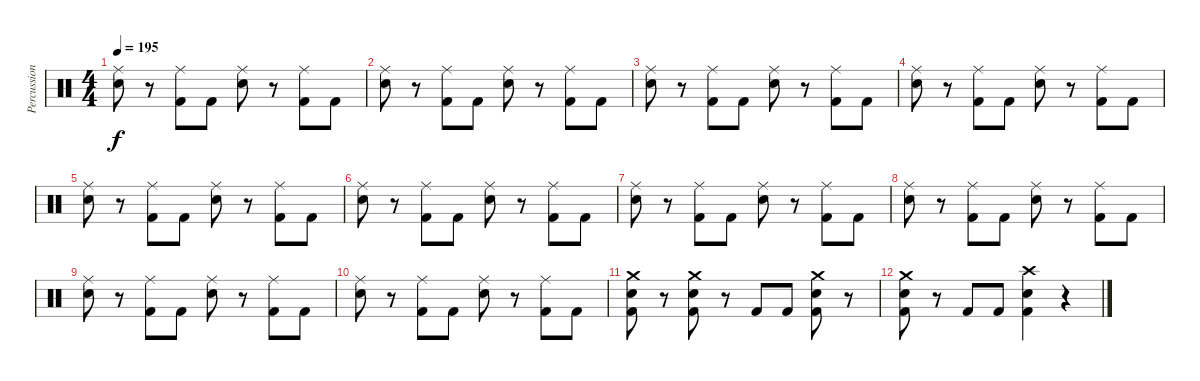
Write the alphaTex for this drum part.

\track ("Percussion" "Percussion") {instrument percussion}
\staff {score}
\articulation defaults
\ts (4 4)
\tempo 195
\clef neutral
\ks c
("Ride (middle)" "Electric Snare (hit)").8{dy f} r.8 ("Ride (middle)" "Kick (hit) 2").8 "Kick (hit) 2".8 ("Ride (middle)" "Electric Snare (hit)").8 r.8 ("Ride (middle)" "Kick (hit) 2").8 "Kick (hit) 2".8 |
("Ride (middle)" "Electric Snare (hit)").8 r.8 ("Ride (middle)" "Kick (hit) 2").8 "Kick (hit) 2".8 ("Ride (middle)" "Electric Snare (hit)").8 r.8 ("Ride (middle)" "Kick (hit) 2").8 "Kick (hit) 2".8 |
("Ride (middle)" "Electric Snare (hit)").8 r.8 ("Ride (middle)" "Kick (hit) 2").8 "Kick (hit) 2".8 ("Ride (middle)" "Electric Snare (hit)").8 r.8 ("Ride (middle)" "Kick (hit) 2").8 "Kick (hit) 2".8 |
("Ride (middle)" "Electric Snare (hit)").8 r.8 ("Ride (middle)" "Kick (hit) 2").8 "Kick (hit) 2".8 ("Ride (middle)" "Electric Snare (hit)").8 r.8 ("Ride (middle)" "Kick (hit) 2").8 "Kick (hit) 2".8 |
("Ride (middle)" "Electric Snare (hit)").8 r.8 ("Ride (middle)" "Kick (hit) 2").8 "Kick (hit) 2".8 ("Ride (middle)" "Electric Snare (hit)").8 r.8 ("Ride (middle)" "Kick (hit) 2").8 "Kick (hit) 2".8 |
("Ride (middle)" "Electric Snare (hit)").8 r.8 ("Ride (middle)" "Kick (hit) 2").8 "Kick (hit) 2".8 ("Ride (middle)" "Electric Snare (hit)").8 r.8 ("Ride (middle)" "Kick (hit) 2").8 "Kick (hit) 2".8 |
("Ride (middle)" "Electric Snare (hit)").8 r.8 ("Ride (middle)" "Kick (hit) 2").8 "Kick (hit) 2".8 ("Ride (middle)" "Electric Snare (hit)").8 r.8 ("Ride (middle)" "Kick (hit) 2").8 "Kick (hit) 2".8 |
("Ride (middle)" "Electric Snare (hit)").8 r.8 ("Ride (middle)" "Kick (hit) 2").8 "Kick (hit) 2".8 ("Ride (middle)" "Electric Snare (hit)").8 r.8 ("Ride (middle)" "Kick (hit) 2").8 "Kick (hit) 2".8 |
("Ride (middle)" "Electric Snare (hit)").8 r.8 ("Ride (middle)" "Kick (hit) 2").8 "Kick (hit) 2".8 ("Ride (middle)" "Electric Snare (hit)").8 r.8 ("Ride (middle)" "Kick (hit) 2").8 "Kick (hit) 2".8 |
("Ride (middle)" "Electric Snare (hit)").8 r.8 ("Ride (middle)" "Kick (hit) 2").8 "Kick (hit) 2".8 ("Ride (middle)" "Electric Snare (hit)").8 r.8 ("Ride (middle)" "Kick (hit) 2").8 "Kick (hit) 2".8 |
("Crash medium (hit)" "Electric Snare (hit)" "Kick (hit) 2").8 r.8 ("Crash medium (hit)" "Electric Snare (hit)" "Kick (hit) 2").8 r.8 "Kick (hit) 2".8 "Kick (hit) 2".8 ("Crash medium (hit)" "Electric Snare (hit)" "Kick (hit) 2").8 r.8 |
("Crash medium (hit)" "Electric Snare (hit)" "Kick (hit) 2").8 r.8 "Kick (hit) 2".8 "Kick (hit) 2".8 ("Crash high (hit)" "Electric Snare (hit)" "Kick (hit) 2").4 r.4
